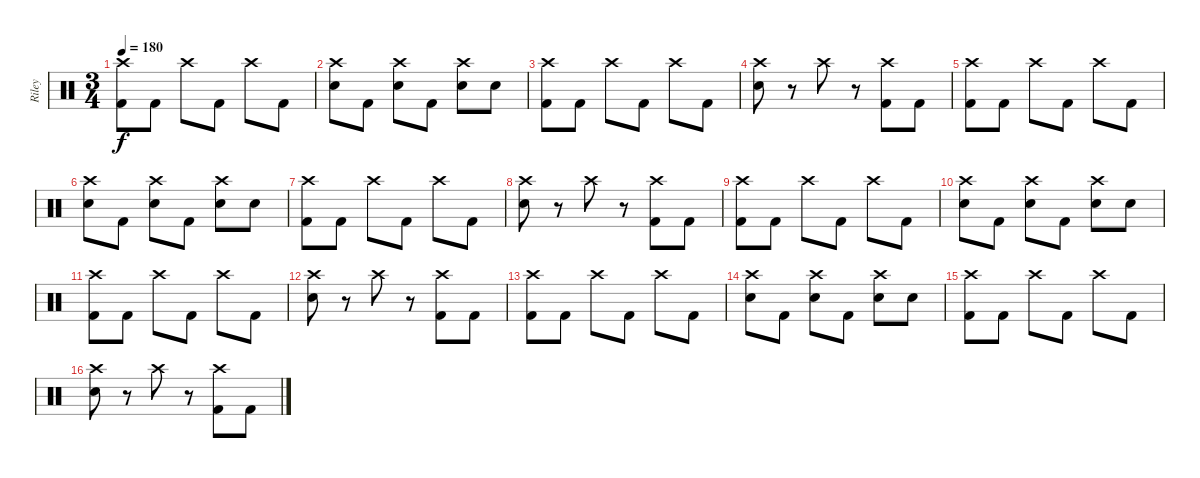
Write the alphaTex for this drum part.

\track ("Riley" "Riley") {instrument percussion}
\staff {score}
\articulation defaults
\ts (3 4)
\tempo 180
\clef neutral
\ks c
("Crash high (hit)" "Kick (hit) 2").8{dy f} "Kick (hit) 2".8 "Crash high (hit)".8 "Kick (hit) 2".8 "Crash high (hit)".8 "Kick (hit) 2".8 |
("Crash high (hit)" "Electric Snare (hit)").8 "Kick (hit) 2".8 ("Crash high (hit)" "Electric Snare (hit)").8 "Kick (hit) 2".8 ("Crash high (hit)" "Electric Snare (hit)").8 "Electric Snare (hit)".8 |
("Crash high (hit)" "Kick (hit) 2").8 "Kick (hit) 2".8 "Crash high (hit)".8 "Kick (hit) 2".8 "Crash high (hit)".8 "Kick (hit) 2".8 |
("Crash high (hit)" "Electric Snare (hit)").8 r.8 "Crash high (hit)".8 r.8 ("Crash high (hit)" "Kick (hit) 2").8 "Kick (hit) 2".8 |
("Crash high (hit)" "Kick (hit) 2").8 "Kick (hit) 2".8 "Crash high (hit)".8 "Kick (hit) 2".8 "Crash high (hit)".8 "Kick (hit) 2".8 |
("Crash high (hit)" "Electric Snare (hit)").8 "Kick (hit) 2".8 ("Crash high (hit)" "Electric Snare (hit)").8 "Kick (hit) 2".8 ("Crash high (hit)" "Electric Snare (hit)").8 "Electric Snare (hit)".8 |
("Crash high (hit)" "Kick (hit) 2").8 "Kick (hit) 2".8 "Crash high (hit)".8 "Kick (hit) 2".8 "Crash high (hit)".8 "Kick (hit) 2".8 |
("Crash high (hit)" "Electric Snare (hit)").8 r.8 "Crash high (hit)".8 r.8 ("Crash high (hit)" "Kick (hit) 2").8 "Kick (hit) 2".8 |
("Crash high (hit)" "Kick (hit) 2").8 "Kick (hit) 2".8 "Crash high (hit)".8 "Kick (hit) 2".8 "Crash high (hit)".8 "Kick (hit) 2".8 |
("Crash high (hit)" "Electric Snare (hit)").8 "Kick (hit) 2".8 ("Crash high (hit)" "Electric Snare (hit)").8 "Kick (hit) 2".8 ("Crash high (hit)" "Electric Snare (hit)").8 "Electric Snare (hit)".8 |
("Crash high (hit)" "Kick (hit) 2").8 "Kick (hit) 2".8 "Crash high (hit)".8 "Kick (hit) 2".8 "Crash high (hit)".8 "Kick (hit) 2".8 |
("Crash high (hit)" "Electric Snare (hit)").8 r.8 "Crash high (hit)".8 r.8 ("Crash high (hit)" "Kick (hit) 2").8 "Kick (hit) 2".8 |
("Crash high (hit)" "Kick (hit) 2").8 "Kick (hit) 2".8 "Crash high (hit)".8 "Kick (hit) 2".8 "Crash high (hit)".8 "Kick (hit) 2".8 |
("Crash high (hit)" "Electric Snare (hit)").8 "Kick (hit) 2".8 ("Crash high (hit)" "Electric Snare (hit)").8 "Kick (hit) 2".8 ("Crash high (hit)" "Electric Snare (hit)").8 "Electric Snare (hit)".8 |
("Crash high (hit)" "Kick (hit) 2").8 "Kick (hit) 2".8 "Crash high (hit)".8 "Kick (hit) 2".8 "Crash high (hit)".8 "Kick (hit) 2".8 |
("Crash high (hit)" "Electric Snare (hit)").8 r.8 "Crash high (hit)".8 r.8 ("Crash high (hit)" "Kick (hit) 2").8 "Kick (hit) 2".8
